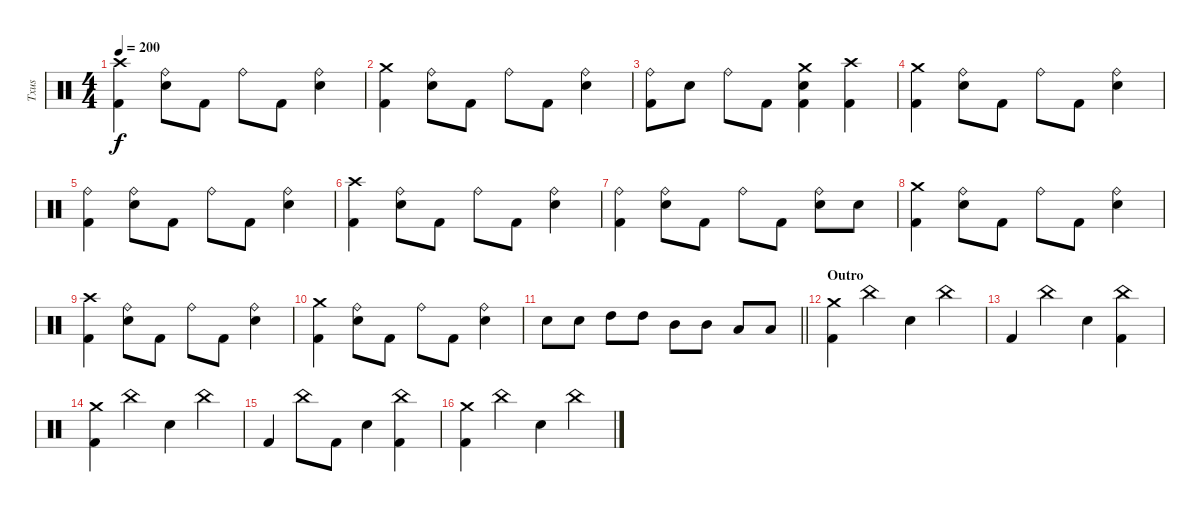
\track ("Txus" "Txus") {instrument percussion}
\staff {score}
\articulation defaults
\ts (4 4)
\tempo 200
\clef neutral
\ks c
("Crash high (hit)" "Kick (hit) 2").4{dy f} ("Ride (bell)" "Snare (hit) 2").8 "Kick (hit) 2".8 "Ride (bell)".8 "Kick (hit) 2".8 ("Ride (bell)" "Snare (hit) 2").4 |
("Crash medium (hit)" "Kick (hit) 2").4 ("Ride (bell)" "Snare (hit) 2").8 "Kick (hit) 2".8 "Ride (bell)".8 "Kick (hit) 2".8 ("Ride (bell)" "Snare (hit) 2").4 |
("Ride (bell)" "Kick (hit) 2").8 "Snare (hit) 2".8 "Ride (bell)".8 "Kick (hit) 2".8 ("Crash medium (hit)" "Snare (hit) 2" "Kick (hit) 2").4 ("Crash high (hit)" "Kick (hit) 2").4 |
("Crash medium (hit)" "Kick (hit) 2").4 ("Ride (bell)" "Snare (hit) 2").8 "Kick (hit) 2".8 "Ride (bell)".8 "Kick (hit) 2".8 ("Ride (bell)" "Snare (hit) 2").4 |
("Ride (bell)" "Kick (hit) 2").4 ("Ride (bell)" "Snare (hit) 2").8 "Kick (hit) 2".8 "Ride (bell)".8 "Kick (hit) 2".8 ("Ride (bell)" "Snare (hit) 2").4 |
("Crash high (hit)" "Kick (hit) 2").4 ("Ride (bell)" "Snare (hit) 2").8 "Kick (hit) 2".8 "Ride (bell)".8 "Kick (hit) 2".8 ("Ride (bell)" "Snare (hit) 2").4 |
("Ride (bell)" "Kick (hit) 2").4 ("Ride (bell)" "Snare (hit) 2").8 "Kick (hit) 2".8 "Ride (bell)".8 "Kick (hit) 2".8 ("Ride (bell)" "Snare (hit) 2").8 "Snare (hit) 2".8 |
("Crash medium (hit)" "Kick (hit) 2").4 ("Ride (bell)" "Snare (hit) 2").8 "Kick (hit) 2".8 "Ride (bell)".8 "Kick (hit) 2".8 ("Ride (bell)" "Snare (hit) 2").4 |
("Crash high (hit)" "Kick (hit) 2").4 ("Ride (bell)" "Snare (hit) 2").8 "Kick (hit) 2".8 "Ride (bell)".8 "Kick (hit) 2".8 ("Ride (bell)" "Snare (hit) 2").4 |
("Crash medium (hit)" "Kick (hit) 2").4 ("Ride (bell)" "Snare (hit) 2").8 "Kick (hit) 2".8 "Ride (bell)".8 "Kick (hit) 2".8 ("Ride (bell)" "Snare (hit) 2").4 |
\barLineRight lightlight "Snare (hit) 2".8 "Snare (hit) 2".8 "High Tom (hit)".8 "High Tom (hit)".8 "Mid Tom (hit)".8 "Mid Tom (hit)".8 "Low Tom (hit)".8 "Low Tom (hit)".8
|
\section ("" "Outro")
("Crash medium (hit)" "Kick (hit) 2").4 "China (hit)".4 "Snare (hit) 2".4 "China (hit)".4 |
"Kick (hit) 2".4 "China (hit)".4 "Snare (hit) 2".4 ("China (hit)" "Kick (hit) 2").4 |
("Crash medium (hit)" "Kick (hit) 2").4 "China (hit)".4 "Snare (hit) 2".4 "China (hit)".4 |
"Kick (hit) 2".4 "China (hit)".8 "Kick (hit) 2".8 "Snare (hit) 2".4 ("China (hit)" "Kick (hit) 2").4 |
("Crash medium (hit)" "Kick (hit) 2").4 "China (hit)".4 "Snare (hit) 2".4 "China (hit)".4
